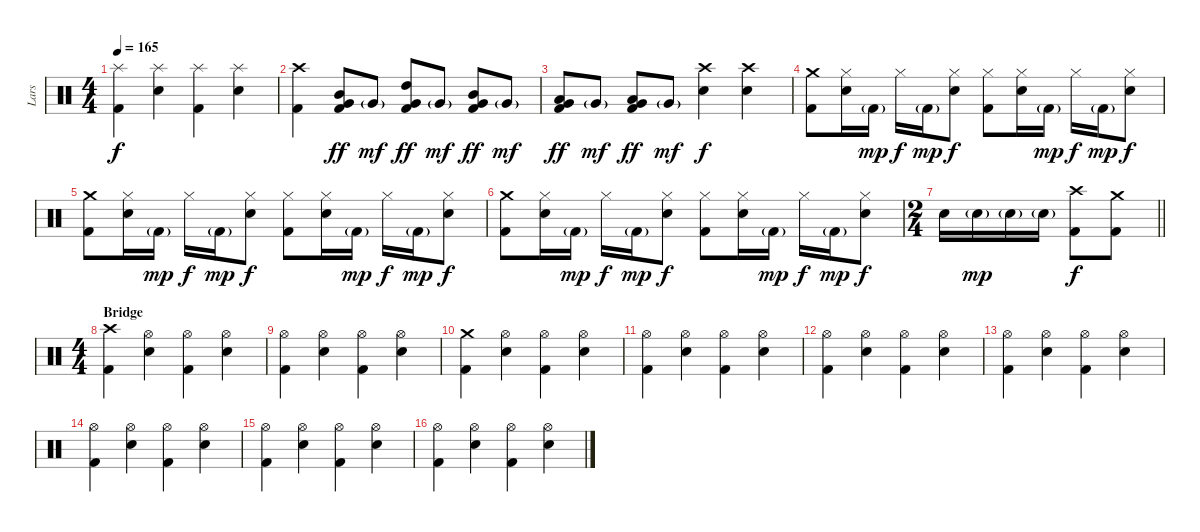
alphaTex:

\track ("Lars" "Lars") {instrument percussion}
\staff {score}
\articulation defaults
\ts (4 4)
\tempo 165
\clef neutral
\ks c
("Splash (hit)" "Kick (hit) 2").4{dy f} ("Splash (hit)" "Snare (hit) 2").4 ("Splash (hit)" "Kick (hit) 2").4 ("Splash (hit)" "Snare (hit) 2").4 |
("Crash high (hit)" "Kick (hit) 2").4 ("Mid Tom (hit)" "Very Low Tom (hit)" "Kick (hit) 2").8{dy ff} "Very Low Tom (hit)"{g}.8{dy mf} ("High Tom (hit)" "Very Low Tom (hit)" "Kick (hit) 2").8{dy ff} "Very Low Tom (hit)"{g}.8{dy mf} ("Mid Tom (hit)" "Very Low Tom (hit)" "Kick (hit) 2").8{dy ff} "Very Low Tom (hit)"{g}.8{dy mf} |
("Low Tom (hit)" "Very Low Tom (hit)" "Kick (hit) 2").8{dy ff} "Very Low Tom (hit)"{g}.8{dy mf} ("Low Tom (hit)" "Very Low Tom (hit)" "Kick (hit) 2").8{dy ff} "Very Low Tom (hit)"{g}.8{dy mf} ("Crash high (hit)" "Snare (hit) 2").4{dy f} ("Crash high (hit)" "Snare (hit) 2").4 |
("Crash medium (hit)" "Kick (hit) 2").8 ("Hi-Hat (closed)" "Snare (hit) 2").16 "Kick (hit) 2"{g}.16{dy mp} "Hi-Hat (closed)".16{dy f} "Kick (hit) 2"{g}.16{dy mp} ("Hi-Hat (closed)" "Snare (hit) 2").8{dy f} ("Hi-Hat (closed)" "Kick (hit) 2").8 ("Hi-Hat (closed)" "Snare (hit) 2").16 "Kick (hit) 2"{g}.16{dy mp} "Hi-Hat (closed)".16{dy f} "Kick (hit) 2"{g}.16{dy mp} ("Hi-Hat (closed)" "Snare (hit) 2").8{dy f} |
("Crash medium (hit)" "Kick (hit) 2").8 ("Hi-Hat (closed)" "Snare (hit) 2").16 "Kick (hit) 2"{g}.16{dy mp} "Hi-Hat (closed)".16{dy f} "Kick (hit) 2"{g}.16{dy mp} ("Hi-Hat (closed)" "Snare (hit) 2").8{dy f} ("Hi-Hat (closed)" "Kick (hit) 2").8 ("Hi-Hat (closed)" "Snare (hit) 2").16 "Kick (hit) 2"{g}.16{dy mp} "Hi-Hat (closed)".16{dy f} "Kick (hit) 2"{g}.16{dy mp} ("Hi-Hat (closed)" "Snare (hit) 2").8{dy f} |
("Crash medium (hit)" "Kick (hit) 2").8 ("Hi-Hat (closed)" "Snare (hit) 2").16 "Kick (hit) 2"{g}.16{dy mp} "Hi-Hat (closed)".16{dy f} "Kick (hit) 2"{g}.16{dy mp} ("Hi-Hat (closed)" "Snare (hit) 2").8{dy f} ("Hi-Hat (closed)" "Kick (hit) 2").8 ("Hi-Hat (closed)" "Snare (hit) 2").16 "Kick (hit) 2"{g}.16{dy mp} "Hi-Hat (closed)".16{dy f} "Kick (hit) 2"{g}.16{dy mp} ("Hi-Hat (closed)" "Snare (hit) 2").8{dy f} |
\ts (2 4)
\barLineRight lightlight "Snare (hit) 2".16 "Snare (hit) 2"{g}.16{dy mp} "Snare (hit) 2"{g}.16 "Snare (hit) 2"{g}.16
("Crash high (hit)" "Kick (hit) 2").8{dy f} ("Crash medium (hit)" "Kick (hit) 2").8 |
\ts (4 4)
\section ("" "Bridge")
("Crash high (hit)" "Kick (hit) 2").4 ("Hi-Hat (open)" "Snare (hit) 2").4 ("Hi-Hat (open)" "Kick (hit) 2").4 ("Hi-Hat (open)" "Snare (hit) 2").4 |
("Hi-Hat (open)" "Kick (hit) 2").4 ("Hi-Hat (open)" "Snare (hit) 2").4 ("Hi-Hat (open)" "Kick (hit) 2").4 ("Hi-Hat (open)" "Snare (hit) 2").4 |
("Crash medium (hit)" "Kick (hit) 2").4 ("Hi-Hat (open)" "Snare (hit) 2").4 ("Hi-Hat (open)" "Kick (hit) 2").4 ("Hi-Hat (open)" "Snare (hit) 2").4 |
("Hi-Hat (open)" "Kick (hit) 2").4 ("Hi-Hat (open)" "Snare (hit) 2").4 ("Hi-Hat (open)" "Kick (hit) 2").4 ("Hi-Hat (open)" "Snare (hit) 2").4 |
("Hi-Hat (open)" "Kick (hit) 2").4 ("Hi-Hat (open)" "Snare (hit) 2").4 ("Hi-Hat (open)" "Kick (hit) 2").4 ("Hi-Hat (open)" "Snare (hit) 2").4 |
("Hi-Hat (open)" "Kick (hit) 2").4 ("Hi-Hat (open)" "Snare (hit) 2").4 ("Hi-Hat (open)" "Kick (hit) 2").4 ("Hi-Hat (open)" "Snare (hit) 2").4 |
("Hi-Hat (open)" "Kick (hit) 2").4 ("Hi-Hat (open)" "Snare (hit) 2").4 ("Hi-Hat (open)" "Kick (hit) 2").4 ("Hi-Hat (open)" "Snare (hit) 2").4 |
("Hi-Hat (open)" "Kick (hit) 2").4 ("Hi-Hat (open)" "Snare (hit) 2").4 ("Hi-Hat (open)" "Kick (hit) 2").4 ("Hi-Hat (open)" "Snare (hit) 2").4 |
("Hi-Hat (open)" "Kick (hit) 2").4 ("Hi-Hat (open)" "Snare (hit) 2").4 ("Hi-Hat (open)" "Kick (hit) 2").4 ("Hi-Hat (open)" "Snare (hit) 2").4
